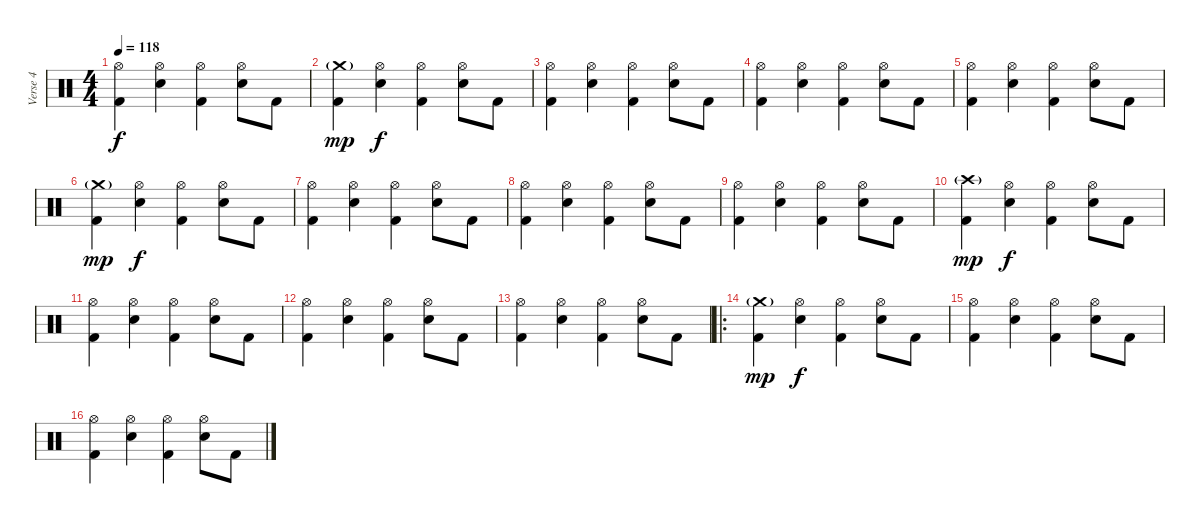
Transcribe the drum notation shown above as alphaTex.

\track ("Verse 4" "Verse 4") {instrument percussion}
\staff {score}
\articulation defaults
\ts (4 4)
\tempo 118
\clef neutral
\ks c
("Hi-Hat (open)" "Kick (hit) 2").4{dy f} ("Hi-Hat (open)" "Electric Snare (hit)").4 ("Hi-Hat (open)" "Kick (hit) 2").4 ("Hi-Hat (open)" "Electric Snare (hit)").8 "Kick (hit) 2".8 |
("Crash medium (hit)"{g} "Kick (hit) 2").4{dy mp} ("Hi-Hat (open)" "Electric Snare (hit)").4{dy f} ("Hi-Hat (open)" "Kick (hit) 2").4 ("Hi-Hat (open)" "Electric Snare (hit)").8 "Kick (hit) 2".8 |
("Hi-Hat (open)" "Kick (hit) 2").4 ("Hi-Hat (open)" "Electric Snare (hit)").4 ("Hi-Hat (open)" "Kick (hit) 2").4 ("Hi-Hat (open)" "Electric Snare (hit)").8 "Kick (hit) 2".8 |
("Hi-Hat (open)" "Kick (hit) 2").4 ("Hi-Hat (open)" "Electric Snare (hit)").4 ("Hi-Hat (open)" "Kick (hit) 2").4 ("Hi-Hat (open)" "Electric Snare (hit)").8 "Kick (hit) 2".8 |
("Hi-Hat (open)" "Kick (hit) 2").4 ("Hi-Hat (open)" "Electric Snare (hit)").4 ("Hi-Hat (open)" "Kick (hit) 2").4 ("Hi-Hat (open)" "Electric Snare (hit)").8 "Kick (hit) 2".8 |
("Crash medium (hit)"{g} "Kick (hit) 2").4{dy mp} ("Hi-Hat (open)" "Electric Snare (hit)").4{dy f} ("Hi-Hat (open)" "Kick (hit) 2").4 ("Hi-Hat (open)" "Electric Snare (hit)").8 "Kick (hit) 2".8 |
("Hi-Hat (open)" "Kick (hit) 2").4 ("Hi-Hat (open)" "Electric Snare (hit)").4 ("Hi-Hat (open)" "Kick (hit) 2").4 ("Hi-Hat (open)" "Electric Snare (hit)").8 "Kick (hit) 2".8 |
("Hi-Hat (open)" "Kick (hit) 2").4 ("Hi-Hat (open)" "Electric Snare (hit)").4 ("Hi-Hat (open)" "Kick (hit) 2").4 ("Hi-Hat (open)" "Electric Snare (hit)").8 "Kick (hit) 2".8 |
("Hi-Hat (open)" "Kick (hit) 2").4 ("Hi-Hat (open)" "Electric Snare (hit)").4 ("Hi-Hat (open)" "Kick (hit) 2").4 ("Hi-Hat (open)" "Electric Snare (hit)").8 "Kick (hit) 2".8 |
("Crash high (hit)"{g} "Kick (hit) 2").4{dy mp} ("Hi-Hat (open)" "Electric Snare (hit)").4{dy f} ("Hi-Hat (open)" "Kick (hit) 2").4 ("Hi-Hat (open)" "Electric Snare (hit)").8 "Kick (hit) 2".8 |
("Hi-Hat (open)" "Kick (hit) 2").4 ("Hi-Hat (open)" "Electric Snare (hit)").4 ("Hi-Hat (open)" "Kick (hit) 2").4 ("Hi-Hat (open)" "Electric Snare (hit)").8 "Kick (hit) 2".8 |
("Hi-Hat (open)" "Kick (hit) 2").4 ("Hi-Hat (open)" "Electric Snare (hit)").4 ("Hi-Hat (open)" "Kick (hit) 2").4 ("Hi-Hat (open)" "Electric Snare (hit)").8 "Kick (hit) 2".8 |
("Hi-Hat (open)" "Kick (hit) 2").4 ("Hi-Hat (open)" "Electric Snare (hit)").4 ("Hi-Hat (open)" "Kick (hit) 2").4 ("Hi-Hat (open)" "Electric Snare (hit)").8 "Kick (hit) 2".8 |
\ro
("Crash medium (hit)"{g} "Kick (hit) 2").4{dy mp} ("Hi-Hat (open)" "Electric Snare (hit)").4{dy f} ("Hi-Hat (open)" "Kick (hit) 2").4 ("Hi-Hat (open)" "Electric Snare (hit)").8 "Kick (hit) 2".8 |
("Hi-Hat (open)" "Kick (hit) 2").4 ("Hi-Hat (open)" "Electric Snare (hit)").4 ("Hi-Hat (open)" "Kick (hit) 2").4 ("Hi-Hat (open)" "Electric Snare (hit)").8 "Kick (hit) 2".8 |
("Hi-Hat (open)" "Kick (hit) 2").4 ("Hi-Hat (open)" "Electric Snare (hit)").4 ("Hi-Hat (open)" "Kick (hit) 2").4 ("Hi-Hat (open)" "Electric Snare (hit)").8 "Kick (hit) 2".8
